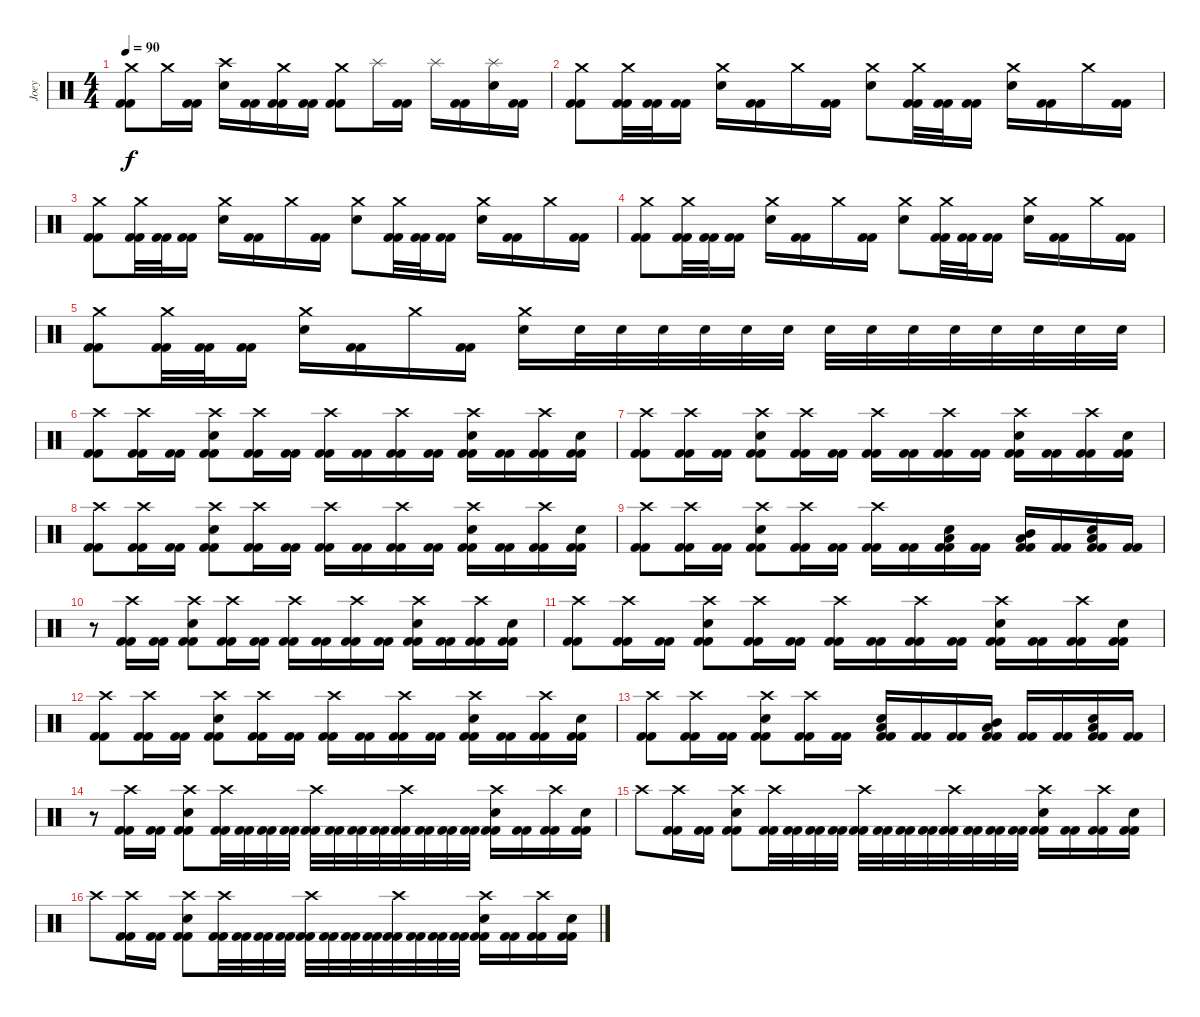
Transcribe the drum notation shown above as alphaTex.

\track ("Joey" "Joey") {instrument percussion}
\staff {score}
\articulation defaults
\ts (4 4)
\tempo 90
\clef neutral
\ks c
("Crash medium (hit)" "Kick (hit) 2" "Kick (hit) 2").8{dy f} "Crash medium (hit)".16 ("Kick (hit) 2" "Kick (hit) 2").16 ("Electric Snare (hit)" "Crash high (hit)").16 ("Kick (hit) 2" "Kick (hit) 2").16 ("Crash medium (hit)" "Kick (hit) 2" "Kick (hit) 2").16 ("Kick (hit) 2" "Kick (hit) 2").16 ("Crash medium (hit)" "Kick (hit) 2" "Kick (hit) 2").8 "Splash (hit)".16 ("Kick (hit) 2" "Kick (hit) 2").16 "Splash (hit)".16 ("Kick (hit) 2" "Kick (hit) 2").16 ("Electric Snare (hit)" "Splash (hit)").16 ("Kick (hit) 2" "Kick (hit) 2").16 |
("Crash medium (hit)" "Kick (hit) 2" "Kick (hit) 2").8 ("Crash medium (hit)" "Kick (hit) 2" "Kick (hit) 2").32 ("Kick (hit) 2" "Kick (hit) 2").32 ("Kick (hit) 2" "Kick (hit) 2").16 ("Electric Snare (hit)" "Crash medium (hit)").16 ("Kick (hit) 2" "Kick (hit) 2").16 "Crash medium (hit)".16 ("Kick (hit) 2" "Kick (hit) 2").16 ("Electric Snare (hit)" "Crash medium (hit)").8 ("Crash medium (hit)" "Kick (hit) 2" "Kick (hit) 2").32 ("Kick (hit) 2" "Kick (hit) 2").32 ("Kick (hit) 2" "Kick (hit) 2").16 ("Electric Snare (hit)" "Crash medium (hit)").16 ("Kick (hit) 2" "Kick (hit) 2").16 "Crash medium (hit)".16 ("Kick (hit) 2" "Kick (hit) 2").16 |
("Crash medium (hit)" "Kick (hit) 2" "Kick (hit) 2").8 ("Crash medium (hit)" "Kick (hit) 2" "Kick (hit) 2").32 ("Kick (hit) 2" "Kick (hit) 2").32 ("Kick (hit) 2" "Kick (hit) 2").16 ("Electric Snare (hit)" "Crash medium (hit)").16 ("Kick (hit) 2" "Kick (hit) 2").16 "Crash medium (hit)".16 ("Kick (hit) 2" "Kick (hit) 2").16 ("Electric Snare (hit)" "Crash medium (hit)").8 ("Crash medium (hit)" "Kick (hit) 2" "Kick (hit) 2").32 ("Kick (hit) 2" "Kick (hit) 2").32 ("Kick (hit) 2" "Kick (hit) 2").16 ("Electric Snare (hit)" "Crash medium (hit)").16 ("Kick (hit) 2" "Kick (hit) 2").16 "Crash medium (hit)".16 ("Kick (hit) 2" "Kick (hit) 2").16 |
("Crash medium (hit)" "Kick (hit) 2" "Kick (hit) 2").8 ("Crash medium (hit)" "Kick (hit) 2" "Kick (hit) 2").32 ("Kick (hit) 2" "Kick (hit) 2").32 ("Kick (hit) 2" "Kick (hit) 2").16 ("Electric Snare (hit)" "Crash medium (hit)").16 ("Kick (hit) 2" "Kick (hit) 2").16 "Crash medium (hit)".16 ("Kick (hit) 2" "Kick (hit) 2").16 ("Electric Snare (hit)" "Crash medium (hit)").8 ("Crash medium (hit)" "Kick (hit) 2" "Kick (hit) 2").32 ("Kick (hit) 2" "Kick (hit) 2").32 ("Kick (hit) 2" "Kick (hit) 2").16 ("Electric Snare (hit)" "Crash medium (hit)").16 ("Kick (hit) 2" "Kick (hit) 2").16 "Crash medium (hit)".16 ("Kick (hit) 2" "Kick (hit) 2").16 |
("Crash medium (hit)" "Kick (hit) 2" "Kick (hit) 2").8 ("Crash medium (hit)" "Kick (hit) 2" "Kick (hit) 2").32 ("Kick (hit) 2" "Kick (hit) 2").32 ("Kick (hit) 2" "Kick (hit) 2").16 ("Electric Snare (hit)" "Crash medium (hit)").16 ("Kick (hit) 2" "Kick (hit) 2").16 "Crash medium (hit)".16 ("Kick (hit) 2" "Kick (hit) 2").16 ("Electric Snare (hit)" "Crash medium (hit)").16 "Electric Snare (hit)".32 "Electric Snare (hit)".32 "Electric Snare (hit)".32 "Electric Snare (hit)".32 "Electric Snare (hit)".32 "Electric Snare (hit)".32 "Electric Snare (hit)".32 "Electric Snare (hit)".32 "Electric Snare (hit)".32 "Electric Snare (hit)".32 "Electric Snare (hit)".32 "Electric Snare (hit)".32 "Electric Snare (hit)".32 "Electric Snare (hit)".32 |
("Crash high (hit)" "Kick (hit) 2" "Kick (hit) 2").8 ("Crash high (hit)" "Kick (hit) 2" "Kick (hit) 2").16 ("Kick (hit) 2" "Kick (hit) 2").16 ("Electric Snare (hit)" "Crash high (hit)" "Kick (hit) 2" "Kick (hit) 2").8 ("Crash high (hit)" "Kick (hit) 2" "Kick (hit) 2").16 ("Kick (hit) 2" "Kick (hit) 2").16 ("Crash high (hit)" "Kick (hit) 2" "Kick (hit) 2").16 ("Kick (hit) 2" "Kick (hit) 2").16 ("Crash high (hit)" "Kick (hit) 2" "Kick (hit) 2").16 ("Kick (hit) 2" "Kick (hit) 2").16 ("Electric Snare (hit)" "Crash high (hit)" "Kick (hit) 2" "Kick (hit) 2").16 ("Kick (hit) 2" "Kick (hit) 2").16 ("Crash high (hit)" "Kick (hit) 2" "Kick (hit) 2").16 ("Electric Snare (hit)" "Kick (hit) 2" "Kick (hit) 2").16 |
("Crash high (hit)" "Kick (hit) 2" "Kick (hit) 2").8 ("Crash high (hit)" "Kick (hit) 2" "Kick (hit) 2").16 ("Kick (hit) 2" "Kick (hit) 2").16 ("Electric Snare (hit)" "Crash high (hit)" "Kick (hit) 2" "Kick (hit) 2").8 ("Crash high (hit)" "Kick (hit) 2" "Kick (hit) 2").16 ("Kick (hit) 2" "Kick (hit) 2").16 ("Crash high (hit)" "Kick (hit) 2" "Kick (hit) 2").16 ("Kick (hit) 2" "Kick (hit) 2").16 ("Crash high (hit)" "Kick (hit) 2" "Kick (hit) 2").16 ("Kick (hit) 2" "Kick (hit) 2").16 ("Electric Snare (hit)" "Crash high (hit)" "Kick (hit) 2" "Kick (hit) 2").16 ("Kick (hit) 2" "Kick (hit) 2").16 ("Crash high (hit)" "Kick (hit) 2" "Kick (hit) 2").16 ("Electric Snare (hit)" "Kick (hit) 2" "Kick (hit) 2").16 |
("Crash high (hit)" "Kick (hit) 2" "Kick (hit) 2").8 ("Crash high (hit)" "Kick (hit) 2" "Kick (hit) 2").16 ("Kick (hit) 2" "Kick (hit) 2").16 ("Electric Snare (hit)" "Crash high (hit)" "Kick (hit) 2" "Kick (hit) 2").8 ("Crash high (hit)" "Kick (hit) 2" "Kick (hit) 2").16 ("Kick (hit) 2" "Kick (hit) 2").16 ("Crash high (hit)" "Kick (hit) 2" "Kick (hit) 2").16 ("Kick (hit) 2" "Kick (hit) 2").16 ("Crash high (hit)" "Kick (hit) 2" "Kick (hit) 2").16 ("Kick (hit) 2" "Kick (hit) 2").16 ("Electric Snare (hit)" "Crash high (hit)" "Kick (hit) 2" "Kick (hit) 2").16 ("Kick (hit) 2" "Kick (hit) 2").16 ("Crash high (hit)" "Kick (hit) 2" "Kick (hit) 2").16 ("Electric Snare (hit)" "Kick (hit) 2" "Kick (hit) 2").16 |
("Crash high (hit)" "Kick (hit) 2" "Kick (hit) 2").8 ("Crash high (hit)" "Kick (hit) 2" "Kick (hit) 2").16 ("Kick (hit) 2" "Kick (hit) 2").16 ("Electric Snare (hit)" "Crash high (hit)" "Kick (hit) 2" "Kick (hit) 2").8 ("Crash high (hit)" "Kick (hit) 2" "Kick (hit) 2").16 ("Kick (hit) 2" "Kick (hit) 2").16 ("Crash high (hit)" "Kick (hit) 2" "Kick (hit) 2").16 ("Kick (hit) 2" "Kick (hit) 2").16 ("Electric Snare (hit)" "Low Tom (hit)" "Kick (hit) 2" "Kick (hit) 2").16 ("Kick (hit) 2" "Kick (hit) 2").16 ("Low Tom (hit)" "Mid Tom (hit)" "Kick (hit) 2" "Kick (hit) 2").16 ("Kick (hit) 2" "Kick (hit) 2").16 ("Electric Snare (hit)" "Low Tom (hit)" "Kick (hit) 2" "Kick (hit) 2").16 ("Kick (hit) 2" "Kick (hit) 2").16 |
r.8 ("Crash high (hit)" "Kick (hit) 2" "Kick (hit) 2").16 ("Kick (hit) 2" "Kick (hit) 2").16 ("Electric Snare (hit)" "Crash high (hit)" "Kick (hit) 2" "Kick (hit) 2").8 ("Crash high (hit)" "Kick (hit) 2" "Kick (hit) 2").16 ("Kick (hit) 2" "Kick (hit) 2").16 ("Crash high (hit)" "Kick (hit) 2" "Kick (hit) 2").16 ("Kick (hit) 2" "Kick (hit) 2").16 ("Crash high (hit)" "Kick (hit) 2" "Kick (hit) 2").16 ("Kick (hit) 2" "Kick (hit) 2").16 ("Electric Snare (hit)" "Crash high (hit)" "Kick (hit) 2" "Kick (hit) 2").16 ("Kick (hit) 2" "Kick (hit) 2").16 ("Crash high (hit)" "Kick (hit) 2" "Kick (hit) 2").16 ("Electric Snare (hit)" "Kick (hit) 2" "Kick (hit) 2").16 |
("Crash high (hit)" "Kick (hit) 2" "Kick (hit) 2").8 ("Crash high (hit)" "Kick (hit) 2" "Kick (hit) 2").16 ("Kick (hit) 2" "Kick (hit) 2").16 ("Electric Snare (hit)" "Crash high (hit)" "Kick (hit) 2" "Kick (hit) 2").8 ("Crash high (hit)" "Kick (hit) 2" "Kick (hit) 2").16 ("Kick (hit) 2" "Kick (hit) 2").16 ("Crash high (hit)" "Kick (hit) 2" "Kick (hit) 2").16 ("Kick (hit) 2" "Kick (hit) 2").16 ("Crash high (hit)" "Kick (hit) 2" "Kick (hit) 2").16 ("Kick (hit) 2" "Kick (hit) 2").16 ("Electric Snare (hit)" "Crash high (hit)" "Kick (hit) 2" "Kick (hit) 2").16 ("Kick (hit) 2" "Kick (hit) 2").16 ("Crash high (hit)" "Kick (hit) 2" "Kick (hit) 2").16 ("Electric Snare (hit)" "Kick (hit) 2" "Kick (hit) 2").16 |
("Crash high (hit)" "Kick (hit) 2" "Kick (hit) 2").8 ("Crash high (hit)" "Kick (hit) 2" "Kick (hit) 2").16 ("Kick (hit) 2" "Kick (hit) 2").16 ("Electric Snare (hit)" "Crash high (hit)" "Kick (hit) 2" "Kick (hit) 2").8 ("Crash high (hit)" "Kick (hit) 2" "Kick (hit) 2").16 ("Kick (hit) 2" "Kick (hit) 2").16 ("Crash high (hit)" "Kick (hit) 2" "Kick (hit) 2").16 ("Kick (hit) 2" "Kick (hit) 2").16 ("Crash high (hit)" "Kick (hit) 2" "Kick (hit) 2").16 ("Kick (hit) 2" "Kick (hit) 2").16 ("Electric Snare (hit)" "Crash high (hit)" "Kick (hit) 2" "Kick (hit) 2").16 ("Kick (hit) 2" "Kick (hit) 2").16 ("Crash high (hit)" "Kick (hit) 2" "Kick (hit) 2").16 ("Electric Snare (hit)" "Kick (hit) 2" "Kick (hit) 2").16 |
("Crash high (hit)" "Kick (hit) 2" "Kick (hit) 2").8 ("Crash high (hit)" "Kick (hit) 2" "Kick (hit) 2").16 ("Kick (hit) 2" "Kick (hit) 2").16 ("Electric Snare (hit)" "Crash high (hit)" "Kick (hit) 2" "Kick (hit) 2").8 ("Crash high (hit)" "Kick (hit) 2" "Kick (hit) 2").16 ("Kick (hit) 2" "Kick (hit) 2").16 ("Electric Snare (hit)" "Low Tom (hit)" "Kick (hit) 2" "Kick (hit) 2").16 ("Kick (hit) 2" "Kick (hit) 2").16 ("Kick (hit) 2" "Kick (hit) 2").16 ("Low Tom (hit)" "Mid Tom (hit)" "Kick (hit) 2" "Kick (hit) 2").16 ("Kick (hit) 2" "Kick (hit) 2").16 ("Kick (hit) 2" "Kick (hit) 2").16 ("Electric Snare (hit)" "Low Tom (hit)" "Kick (hit) 2" "Kick (hit) 2").16 ("Kick (hit) 2" "Kick (hit) 2").16 |
r.8 ("Crash high (hit)" "Kick (hit) 2" "Kick (hit) 2").16 ("Kick (hit) 2" "Kick (hit) 2").16 ("Electric Snare (hit)" "Crash high (hit)" "Kick (hit) 2" "Kick (hit) 2").8 ("Crash high (hit)" "Kick (hit) 2" "Kick (hit) 2").32 ("Kick (hit) 2" "Kick (hit) 2").32 ("Kick (hit) 2" "Kick (hit) 2").32 ("Kick (hit) 2" "Kick (hit) 2").32 ("Crash high (hit)" "Kick (hit) 2" "Kick (hit) 2").32 ("Kick (hit) 2" "Kick (hit) 2").32 ("Kick (hit) 2" "Kick (hit) 2").32 ("Kick (hit) 2" "Kick (hit) 2").32 ("Crash high (hit)" "Kick (hit) 2" "Kick (hit) 2").32 ("Kick (hit) 2" "Kick (hit) 2").32 ("Kick (hit) 2" "Kick (hit) 2").32 ("Kick (hit) 2" "Kick (hit) 2").32 ("Electric Snare (hit)" "Crash high (hit)" "Kick (hit) 2" "Kick (hit) 2").16 ("Kick (hit) 2" "Kick (hit) 2").16 ("Crash high (hit)" "Kick (hit) 2" "Kick (hit) 2").16 ("Electric Snare (hit)" "Kick (hit) 2" "Kick (hit) 2").16 |
"Crash high (hit)".8 ("Crash high (hit)" "Kick (hit) 2" "Kick (hit) 2").16 ("Kick (hit) 2" "Kick (hit) 2").16 ("Electric Snare (hit)" "Crash high (hit)" "Kick (hit) 2" "Kick (hit) 2").8 ("Crash high (hit)" "Kick (hit) 2" "Kick (hit) 2").32 ("Kick (hit) 2" "Kick (hit) 2").32 ("Kick (hit) 2" "Kick (hit) 2").32 ("Kick (hit) 2" "Kick (hit) 2").32 ("Crash high (hit)" "Kick (hit) 2" "Kick (hit) 2").32 ("Kick (hit) 2" "Kick (hit) 2").32 ("Kick (hit) 2" "Kick (hit) 2").32 ("Kick (hit) 2" "Kick (hit) 2").32 ("Crash high (hit)" "Kick (hit) 2" "Kick (hit) 2").32 ("Kick (hit) 2" "Kick (hit) 2").32 ("Kick (hit) 2" "Kick (hit) 2").32 ("Kick (hit) 2" "Kick (hit) 2").32 ("Electric Snare (hit)" "Crash high (hit)" "Kick (hit) 2" "Kick (hit) 2").16 ("Kick (hit) 2" "Kick (hit) 2").16 ("Crash high (hit)" "Kick (hit) 2" "Kick (hit) 2").16 ("Electric Snare (hit)" "Kick (hit) 2" "Kick (hit) 2").16 |
"Crash high (hit)".8 ("Crash high (hit)" "Kick (hit) 2" "Kick (hit) 2").16 ("Kick (hit) 2" "Kick (hit) 2").16 ("Electric Snare (hit)" "Crash high (hit)" "Kick (hit) 2" "Kick (hit) 2").8 ("Crash high (hit)" "Kick (hit) 2" "Kick (hit) 2").32 ("Kick (hit) 2" "Kick (hit) 2").32 ("Kick (hit) 2" "Kick (hit) 2").32 ("Kick (hit) 2" "Kick (hit) 2").32 ("Crash high (hit)" "Kick (hit) 2" "Kick (hit) 2").32 ("Kick (hit) 2" "Kick (hit) 2").32 ("Kick (hit) 2" "Kick (hit) 2").32 ("Kick (hit) 2" "Kick (hit) 2").32 ("Crash high (hit)" "Kick (hit) 2" "Kick (hit) 2").32 ("Kick (hit) 2" "Kick (hit) 2").32 ("Kick (hit) 2" "Kick (hit) 2").32 ("Kick (hit) 2" "Kick (hit) 2").32 ("Electric Snare (hit)" "Crash high (hit)" "Kick (hit) 2" "Kick (hit) 2").16 ("Kick (hit) 2" "Kick (hit) 2").16 ("Crash high (hit)" "Kick (hit) 2" "Kick (hit) 2").16 ("Electric Snare (hit)" "Kick (hit) 2" "Kick (hit) 2").16
